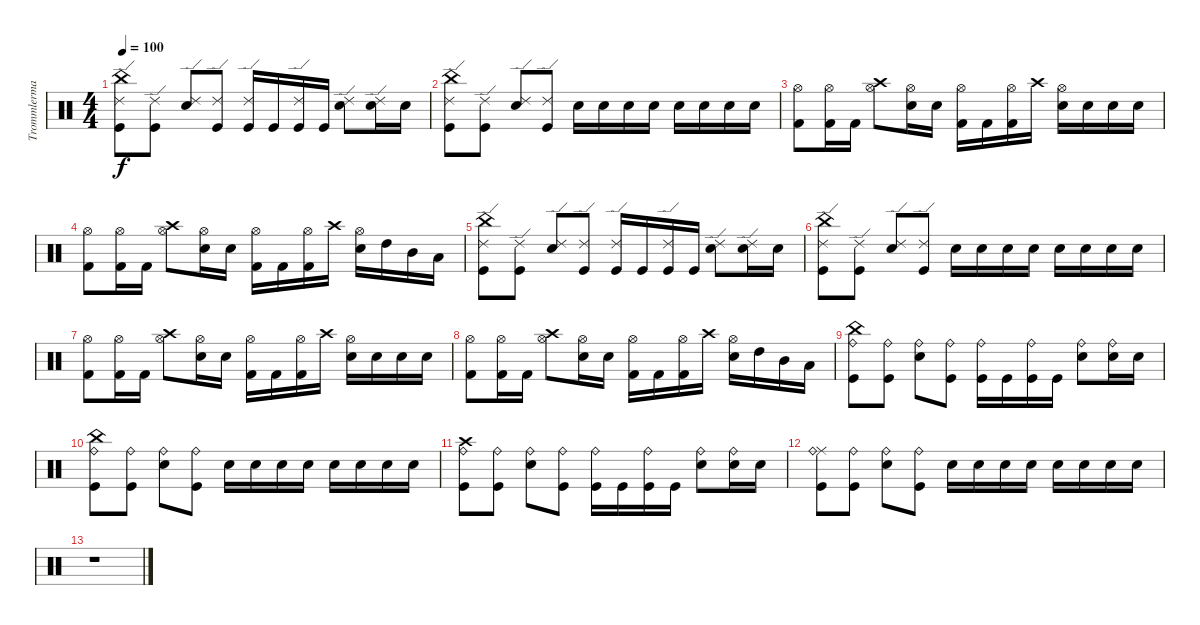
\track ("Trommlermadel" "Trommlerma") {instrument percussion}
\staff {score}
\articulation defaults
\ts (4 4)
\tempo 100
\clef neutral
\ks c
("China (hit)" "Kick (hit)" "Ride (edge) 2").8{dy f} ("Kick (hit)" "Ride (edge) 2").8 ("Electric Snare (hit)" "Ride (edge) 2").8 ("Kick (hit)" "Ride (edge) 2").8 ("Kick (hit)" "Ride (edge) 2").16 "Kick (hit)".16 ("Kick (hit)" "Ride (edge) 2").16 "Kick (hit)".16 ("Electric Snare (hit)" "Ride (edge) 2").8 ("Electric Snare (hit)" "Ride (edge) 2").16 "Electric Snare (hit)".16 |
("China (hit)" "Kick (hit)" "Ride (edge) 2").8 ("Kick (hit)" "Ride (edge) 2").8 ("Electric Snare (hit)" "Ride (edge) 2").8 ("Kick (hit)" "Ride (edge) 2").8 "Electric Snare (hit)".16 "Electric Snare (hit)".16 "Electric Snare (hit)".16 "Electric Snare (hit)".16 "Electric Snare (hit)".16 "Electric Snare (hit)".16 "Electric Snare (hit)".16 "Electric Snare (hit)".16 |
("Kick (hit) 2" "Hi-Hat (open)").8 ("Kick (hit) 2" "Hi-Hat (open)").16 "Kick (hit) 2".16 ("Crash high (hit)" "Hi-Hat (open)").8 ("Electric Snare (hit)" "Hi-Hat (open)").16 "Electric Snare (hit)".16 ("Kick (hit) 2" "Hi-Hat (open)").16 "Kick (hit) 2".16 ("Kick (hit) 2" "Hi-Hat (open)").16 "Crash high (hit)".16 ("Electric Snare (hit)" "Hi-Hat (open)").16 "Electric Snare (hit)".16 "Electric Snare (hit)".16 "Electric Snare (hit)".16 |
("Kick (hit) 2" "Hi-Hat (open)").8 ("Kick (hit) 2" "Hi-Hat (open)").16 "Kick (hit) 2".16 ("Crash high (hit)" "Hi-Hat (open)").8 ("Electric Snare (hit)" "Hi-Hat (open)").16 "Electric Snare (hit)".16 ("Kick (hit) 2" "Hi-Hat (open)").16 "Kick (hit) 2".16 ("Kick (hit) 2" "Hi-Hat (open)").16 "Crash high (hit)".16 ("Electric Snare (hit)" "Hi-Hat (open)").16 "High Tom (hit)".16 "Mid Tom (hit)".16 "Low Tom (hit)".16 |
("China (hit)" "Kick (hit)" "Ride (edge) 2").8 ("Kick (hit)" "Ride (edge) 2").8 ("Electric Snare (hit)" "Ride (edge) 2").8 ("Kick (hit)" "Ride (edge) 2").8 ("Kick (hit)" "Ride (edge) 2").16 "Kick (hit)".16 ("Kick (hit)" "Ride (edge) 2").16 "Kick (hit)".16 ("Electric Snare (hit)" "Ride (edge) 2").8 ("Electric Snare (hit)" "Ride (edge) 2").16 "Electric Snare (hit)".16 |
("China (hit)" "Kick (hit)" "Ride (edge) 2").8 ("Kick (hit)" "Ride (edge) 2").8 ("Electric Snare (hit)" "Ride (edge) 2").8 ("Kick (hit)" "Ride (edge) 2").8 "Electric Snare (hit)".16 "Electric Snare (hit)".16 "Electric Snare (hit)".16 "Electric Snare (hit)".16 "Electric Snare (hit)".16 "Electric Snare (hit)".16 "Electric Snare (hit)".16 "Electric Snare (hit)".16 |
("Kick (hit) 2" "Hi-Hat (open)").8 ("Kick (hit) 2" "Hi-Hat (open)").16 "Kick (hit) 2".16 ("Crash high (hit)" "Hi-Hat (open)").8 ("Electric Snare (hit)" "Hi-Hat (open)").16 "Electric Snare (hit)".16 ("Kick (hit) 2" "Hi-Hat (open)").16 "Kick (hit) 2".16 ("Kick (hit) 2" "Hi-Hat (open)").16 "Crash high (hit)".16 ("Electric Snare (hit)" "Hi-Hat (open)").16 "Electric Snare (hit)".16 "Electric Snare (hit)".16 "Electric Snare (hit)".16 |
("Kick (hit) 2" "Hi-Hat (open)").8 ("Kick (hit) 2" "Hi-Hat (open)").16 "Kick (hit) 2".16 ("Crash high (hit)" "Hi-Hat (open)").8 ("Electric Snare (hit)" "Hi-Hat (open)").16 "Electric Snare (hit)".16 ("Kick (hit) 2" "Hi-Hat (open)").16 "Kick (hit) 2".16 ("Kick (hit) 2" "Hi-Hat (open)").16 "Crash high (hit)".16 ("Electric Snare (hit)" "Hi-Hat (open)").16 "High Tom (hit)".16 "Mid Tom (hit)".16 "Low Tom (hit)".16 |
("China (hit)" "Kick (hit)" "Ride (bell)").8 ("Kick (hit)" "Ride (bell)").8 ("Electric Snare (hit)" "Ride (bell)").8 ("Kick (hit)" "Ride (bell)").8 ("Kick (hit)" "Ride (bell)").16 "Kick (hit)".16 ("Kick (hit)" "Ride (bell)").16 "Kick (hit)".16 ("Electric Snare (hit)" "Ride (bell)").8 ("Electric Snare (hit)" "Ride (bell)").16 "Electric Snare (hit)".16 |
("China (hit)" "Kick (hit)" "Ride (bell)").8 ("Kick (hit)" "Ride (bell)").8 ("Electric Snare (hit)" "Ride (bell)").8 ("Kick (hit)" "Ride (bell)").8 "Electric Snare (hit)".16 "Electric Snare (hit)".16 "Electric Snare (hit)".16 "Electric Snare (hit)".16 "Electric Snare (hit)".16 "Electric Snare (hit)".16 "Electric Snare (hit)".16 "Electric Snare (hit)".16 |
("Crash high (hit)" "Kick (hit)" "Ride (bell)").8 ("Kick (hit)" "Ride (bell)").8 ("Electric Snare (hit)" "Ride (bell)").8 ("Kick (hit)" "Ride (bell)").8 ("Kick (hit)" "Ride (bell)").16 "Kick (hit)".16 ("Kick (hit)" "Ride (bell)").16 "Kick (hit)".16 ("Electric Snare (hit)" "Ride (bell)").8 ("Electric Snare (hit)" "Ride (bell)").16 "Electric Snare (hit)".16 |
("Ride (middle)" "Kick (hit)" "Ride (bell)").8 ("Kick (hit)" "Ride (bell)").8 ("Electric Snare (hit)" "Ride (bell)").8 ("Kick (hit)" "Ride (bell)").8 "Electric Snare (hit)".16 "Electric Snare (hit)".16 "Electric Snare (hit)".16 "Electric Snare (hit)".16 "Electric Snare (hit)".16 "Electric Snare (hit)".16 "Electric Snare (hit)".16 "Electric Snare (hit)".16 |
r.1
